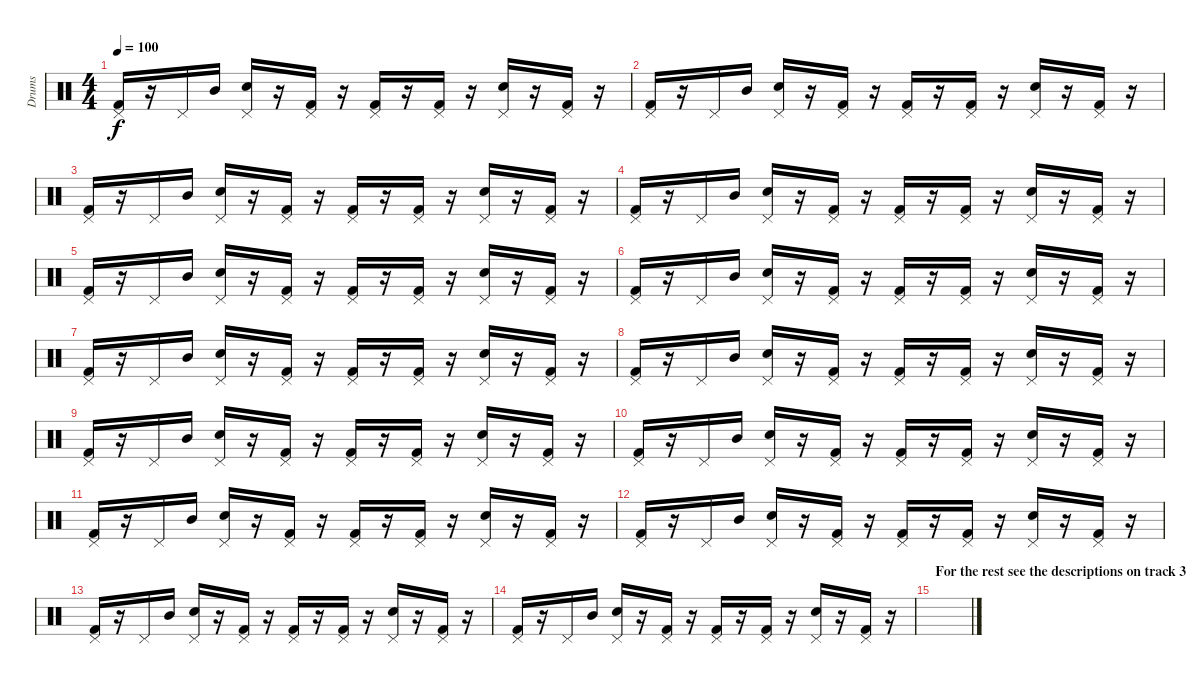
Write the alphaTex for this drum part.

\track ("Drums" "Drums") {instrument percussion}
\staff {score}
\articulation defaults
\ts (4 4)
\tempo 100
\clef neutral
\ks c
("Kick (hit) 2" "Pedal Hi-Hat (hit)").16{dy f} r.16 "Pedal Hi-Hat (hit)".16 "Mid Tom (hit)".16 ("Pedal Hi-Hat (hit)" "Electric Snare (hit)").16 r.16 ("Kick (hit) 2" "Pedal Hi-Hat (hit)").16 r.16 ("Kick (hit) 2" "Pedal Hi-Hat (hit)").16 r.16 ("Kick (hit) 2" "Pedal Hi-Hat (hit)").16 r.16 ("Pedal Hi-Hat (hit)" "Electric Snare (hit)").16 r.16 ("Kick (hit) 2" "Pedal Hi-Hat (hit)").16 r.16 |
("Kick (hit) 2" "Pedal Hi-Hat (hit)").16 r.16 "Pedal Hi-Hat (hit)".16 "Mid Tom (hit)".16 ("Pedal Hi-Hat (hit)" "Electric Snare (hit)").16 r.16 ("Kick (hit) 2" "Pedal Hi-Hat (hit)").16 r.16 ("Kick (hit) 2" "Pedal Hi-Hat (hit)").16 r.16 ("Kick (hit) 2" "Pedal Hi-Hat (hit)").16 r.16 ("Pedal Hi-Hat (hit)" "Electric Snare (hit)").16 r.16 ("Kick (hit) 2" "Pedal Hi-Hat (hit)").16 r.16 |
("Kick (hit) 2" "Pedal Hi-Hat (hit)").16 r.16 "Pedal Hi-Hat (hit)".16 "Mid Tom (hit)".16 ("Pedal Hi-Hat (hit)" "Electric Snare (hit)").16 r.16 ("Kick (hit) 2" "Pedal Hi-Hat (hit)").16 r.16 ("Kick (hit) 2" "Pedal Hi-Hat (hit)").16 r.16 ("Kick (hit) 2" "Pedal Hi-Hat (hit)").16 r.16 ("Pedal Hi-Hat (hit)" "Electric Snare (hit)").16 r.16 ("Kick (hit) 2" "Pedal Hi-Hat (hit)").16 r.16 |
("Kick (hit) 2" "Pedal Hi-Hat (hit)").16 r.16 "Pedal Hi-Hat (hit)".16 "Mid Tom (hit)".16 ("Pedal Hi-Hat (hit)" "Electric Snare (hit)").16 r.16 ("Kick (hit) 2" "Pedal Hi-Hat (hit)").16 r.16 ("Kick (hit) 2" "Pedal Hi-Hat (hit)").16 r.16 ("Kick (hit) 2" "Pedal Hi-Hat (hit)").16 r.16 ("Pedal Hi-Hat (hit)" "Electric Snare (hit)").16 r.16 ("Kick (hit) 2" "Pedal Hi-Hat (hit)").16 r.16 |
("Kick (hit) 2" "Pedal Hi-Hat (hit)").16 r.16 "Pedal Hi-Hat (hit)".16 "Mid Tom (hit)".16 ("Pedal Hi-Hat (hit)" "Electric Snare (hit)").16 r.16 ("Kick (hit) 2" "Pedal Hi-Hat (hit)").16 r.16 ("Kick (hit) 2" "Pedal Hi-Hat (hit)").16 r.16 ("Kick (hit) 2" "Pedal Hi-Hat (hit)").16 r.16 ("Pedal Hi-Hat (hit)" "Electric Snare (hit)").16 r.16 ("Kick (hit) 2" "Pedal Hi-Hat (hit)").16 r.16 |
("Kick (hit) 2" "Pedal Hi-Hat (hit)").16 r.16 "Pedal Hi-Hat (hit)".16 "Mid Tom (hit)".16 ("Pedal Hi-Hat (hit)" "Electric Snare (hit)").16 r.16 ("Kick (hit) 2" "Pedal Hi-Hat (hit)").16 r.16 ("Kick (hit) 2" "Pedal Hi-Hat (hit)").16 r.16 ("Kick (hit) 2" "Pedal Hi-Hat (hit)").16 r.16 ("Pedal Hi-Hat (hit)" "Electric Snare (hit)").16 r.16 ("Kick (hit) 2" "Pedal Hi-Hat (hit)").16 r.16 |
("Kick (hit) 2" "Pedal Hi-Hat (hit)").16 r.16 "Pedal Hi-Hat (hit)".16 "Mid Tom (hit)".16 ("Pedal Hi-Hat (hit)" "Electric Snare (hit)").16 r.16 ("Kick (hit) 2" "Pedal Hi-Hat (hit)").16 r.16 ("Kick (hit) 2" "Pedal Hi-Hat (hit)").16 r.16 ("Kick (hit) 2" "Pedal Hi-Hat (hit)").16 r.16 ("Pedal Hi-Hat (hit)" "Electric Snare (hit)").16 r.16 ("Kick (hit) 2" "Pedal Hi-Hat (hit)").16 r.16 |
("Kick (hit) 2" "Pedal Hi-Hat (hit)").16 r.16 "Pedal Hi-Hat (hit)".16 "Mid Tom (hit)".16 ("Pedal Hi-Hat (hit)" "Electric Snare (hit)").16 r.16 ("Kick (hit) 2" "Pedal Hi-Hat (hit)").16 r.16 ("Kick (hit) 2" "Pedal Hi-Hat (hit)").16 r.16 ("Kick (hit) 2" "Pedal Hi-Hat (hit)").16 r.16 ("Pedal Hi-Hat (hit)" "Electric Snare (hit)").16 r.16 ("Kick (hit) 2" "Pedal Hi-Hat (hit)").16 r.16 |
("Kick (hit) 2" "Pedal Hi-Hat (hit)").16 r.16 "Pedal Hi-Hat (hit)".16 "Mid Tom (hit)".16 ("Pedal Hi-Hat (hit)" "Electric Snare (hit)").16 r.16 ("Kick (hit) 2" "Pedal Hi-Hat (hit)").16 r.16 ("Kick (hit) 2" "Pedal Hi-Hat (hit)").16 r.16 ("Kick (hit) 2" "Pedal Hi-Hat (hit)").16 r.16 ("Pedal Hi-Hat (hit)" "Electric Snare (hit)").16 r.16 ("Kick (hit) 2" "Pedal Hi-Hat (hit)").16 r.16 |
("Kick (hit) 2" "Pedal Hi-Hat (hit)").16 r.16 "Pedal Hi-Hat (hit)".16 "Mid Tom (hit)".16 ("Pedal Hi-Hat (hit)" "Electric Snare (hit)").16 r.16 ("Kick (hit) 2" "Pedal Hi-Hat (hit)").16 r.16 ("Kick (hit) 2" "Pedal Hi-Hat (hit)").16 r.16 ("Kick (hit) 2" "Pedal Hi-Hat (hit)").16 r.16 ("Pedal Hi-Hat (hit)" "Electric Snare (hit)").16 r.16 ("Kick (hit) 2" "Pedal Hi-Hat (hit)").16 r.16 |
("Kick (hit) 2" "Pedal Hi-Hat (hit)").16 r.16 "Pedal Hi-Hat (hit)".16 "Mid Tom (hit)".16 ("Pedal Hi-Hat (hit)" "Electric Snare (hit)").16 r.16 ("Kick (hit) 2" "Pedal Hi-Hat (hit)").16 r.16 ("Kick (hit) 2" "Pedal Hi-Hat (hit)").16 r.16 ("Kick (hit) 2" "Pedal Hi-Hat (hit)").16 r.16 ("Pedal Hi-Hat (hit)" "Electric Snare (hit)").16 r.16 ("Kick (hit) 2" "Pedal Hi-Hat (hit)").16 r.16 |
("Kick (hit) 2" "Pedal Hi-Hat (hit)").16 r.16 "Pedal Hi-Hat (hit)".16 "Mid Tom (hit)".16 ("Pedal Hi-Hat (hit)" "Electric Snare (hit)").16 r.16 ("Kick (hit) 2" "Pedal Hi-Hat (hit)").16 r.16 ("Kick (hit) 2" "Pedal Hi-Hat (hit)").16 r.16 ("Kick (hit) 2" "Pedal Hi-Hat (hit)").16 r.16 ("Pedal Hi-Hat (hit)" "Electric Snare (hit)").16 r.16 ("Kick (hit) 2" "Pedal Hi-Hat (hit)").16 r.16 |
("Kick (hit) 2" "Pedal Hi-Hat (hit)").16 r.16 "Pedal Hi-Hat (hit)".16 "Mid Tom (hit)".16 ("Pedal Hi-Hat (hit)" "Electric Snare (hit)").16 r.16 ("Kick (hit) 2" "Pedal Hi-Hat (hit)").16 r.16 ("Kick (hit) 2" "Pedal Hi-Hat (hit)").16 r.16 ("Kick (hit) 2" "Pedal Hi-Hat (hit)").16 r.16 ("Pedal Hi-Hat (hit)" "Electric Snare (hit)").16 r.16 ("Kick (hit) 2" "Pedal Hi-Hat (hit)").16 r.16 |
("Kick (hit) 2" "Pedal Hi-Hat (hit)").16 r.16 "Pedal Hi-Hat (hit)".16 "Mid Tom (hit)".16 ("Pedal Hi-Hat (hit)" "Electric Snare (hit)").16 r.16 ("Kick (hit) 2" "Pedal Hi-Hat (hit)").16 r.16 ("Kick (hit) 2" "Pedal Hi-Hat (hit)").16 r.16 ("Kick (hit) 2" "Pedal Hi-Hat (hit)").16 r.16 ("Pedal Hi-Hat (hit)" "Electric Snare (hit)").16 r.16 ("Kick (hit) 2" "Pedal Hi-Hat (hit)").16 r.16 |
\section ("" "For the rest see the descriptions on track 3")
